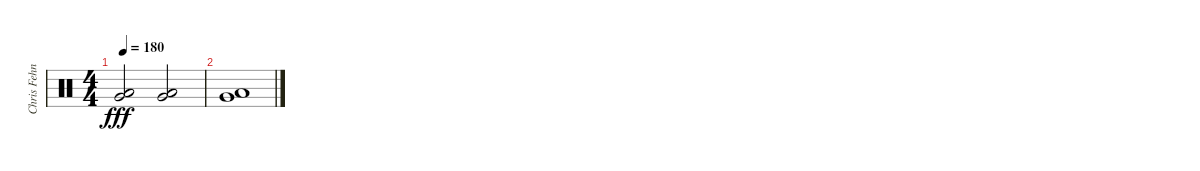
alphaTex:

\track ("Chris Fehn" "Chris Fehn") {instrument percussion}
\staff {score}
\articulation defaults
\ts (4 4)
\tempo 180
\clef neutral
\ks c
("Very Low Tom (hit)" "Low Floor Tom (hit)").2{dy fff} ("Very Low Tom (hit)" "Low Floor Tom (hit)").2 |
("Very Low Tom (hit)" "Low Floor Tom (hit)").1
